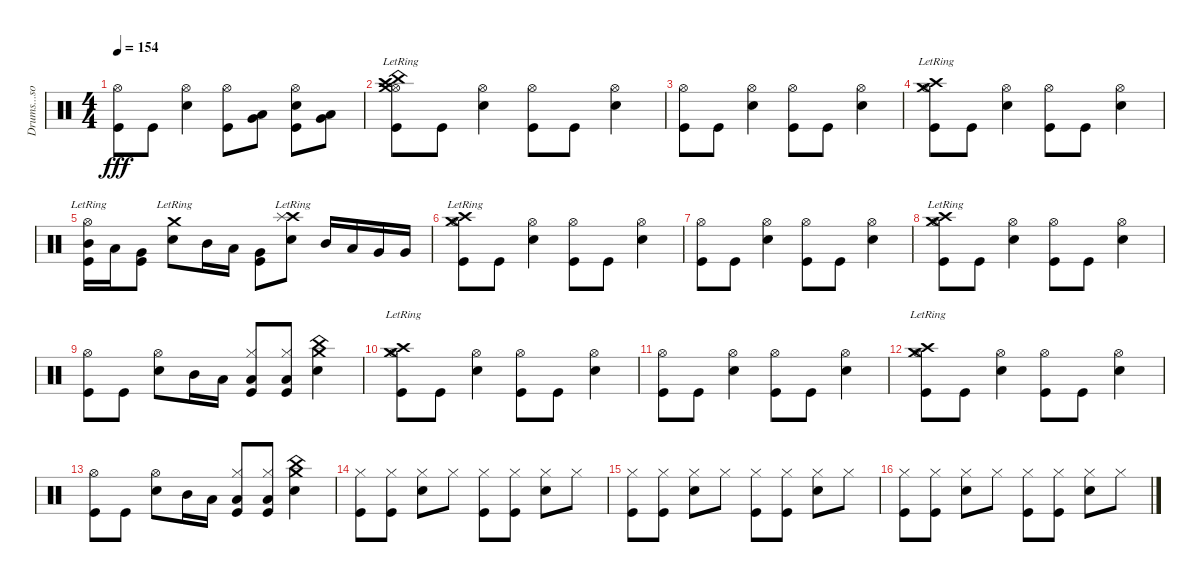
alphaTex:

\track ("Drums...song tabbed by ae" "Drums...so") {instrument percussion}
\staff {score}
\articulation defaults
\ts (4 4)
\tempo 154
\clef neutral
\ks c
("Hi-Hat (open)" "Kick (hit)").8{dy fff} "Kick (hit)".8 ("Hi-Hat (open)" "Snare (hit) 2").4 ("Hi-Hat (open)" "Kick (hit)").8 ("Very Low Tom (hit)" "Low Tom (hit)").8 ("Hi-Hat (open)" "Snare (hit) 2" "Kick (hit)").8 ("Very Low Tom (hit)" "Low Tom (hit)").8 |
("Crash high (hit)"{lr} "Hi-Hat (open)" "Crash medium (hit)"{lr} "Kick (hit)" "China (hit)").8 "Kick (hit)".8 ("Hi-Hat (open)" "Snare (hit) 2").4 ("Hi-Hat (open)" "Kick (hit)").8 "Kick (hit)".8 ("Hi-Hat (open)" "Snare (hit) 2").4 |
("Hi-Hat (open)" "Kick (hit)").8 "Kick (hit)".8 ("Hi-Hat (open)" "Snare (hit) 2").4 ("Hi-Hat (open)" "Kick (hit)").8 "Kick (hit)".8 ("Hi-Hat (open)" "Snare (hit) 2").4 |
("Crash high (hit)"{lr} "Hi-Hat (open)" "Crash medium (hit)"{lr} "Kick (hit)").8 "Kick (hit)".8 ("Hi-Hat (open)" "Snare (hit) 2").4 ("Hi-Hat (open)" "Kick (hit)").8 "Kick (hit)".8 ("Hi-Hat (open)" "Snare (hit) 2").4 |
("Hi-Hat (open)"{lr} "Mid Tom (hit)" "Kick (hit)").16 "Low Tom (hit)".16 ("Very Low Tom (hit)" "Kick (hit)").8 ("Crash medium (hit)"{lr} "Snare (hit) 2").8 "Mid Tom (hit)".16 "Low Tom (hit)".16 ("Very Low Tom (hit)" "Kick (hit)").8 ("Crash high (hit)"{lr} "Splash (hit)"{lr} "Snare (hit) 2").8 "Mid Tom (hit)".16 "Low Tom (hit)".16 "Very Low Tom (hit)".16 "Very Low Tom (hit)".16 |
("Crash high (hit)"{lr} "Hi-Hat (open)" "Crash medium (hit)"{lr} "Kick (hit)").8 "Kick (hit)".8 ("Hi-Hat (open)" "Snare (hit) 2").4 ("Hi-Hat (open)" "Kick (hit)").8 "Kick (hit)".8 ("Hi-Hat (open)" "Snare (hit) 2").4 |
("Hi-Hat (open)" "Kick (hit)").8 "Kick (hit)".8 ("Hi-Hat (open)" "Snare (hit) 2").4 ("Hi-Hat (open)" "Kick (hit)").8 "Kick (hit)".8 ("Hi-Hat (open)" "Snare (hit) 2").4 |
("Crash high (hit)"{lr} "Hi-Hat (open)" "Crash medium (hit)"{lr} "Kick (hit)").8 "Kick (hit)".8 ("Hi-Hat (open)" "Snare (hit) 2").4 ("Hi-Hat (open)" "Kick (hit)").8 "Kick (hit)".8 ("Hi-Hat (open)" "Snare (hit) 2").4 |
("Hi-Hat (open)" "Kick (hit)").8 "Kick (hit)".8 ("Hi-Hat (open)" "Snare (hit) 2").8 "Mid Tom (hit)".16 "Low Tom (hit)".16 ("Hi-Hat (closed)" "Low Floor Tom (hit)" "Kick (hit)").8 ("Hi-Hat (closed)" "Low Floor Tom (hit)" "Kick (hit)").8 ("Crash medium (hit)" "China (hit)" "Snare (hit) 2").4 |
("Crash high (hit)"{lr} "Hi-Hat (open)" "Crash medium (hit)"{lr} "Kick (hit)").8 "Kick (hit)".8 ("Hi-Hat (open)" "Snare (hit) 2").4 ("Hi-Hat (open)" "Kick (hit)").8 "Kick (hit)".8 ("Hi-Hat (open)" "Snare (hit) 2").4 |
("Hi-Hat (open)" "Kick (hit)").8 "Kick (hit)".8 ("Hi-Hat (open)" "Snare (hit) 2").4 ("Hi-Hat (open)" "Kick (hit)").8 "Kick (hit)".8 ("Hi-Hat (open)" "Snare (hit) 2").4 |
("Crash high (hit)"{lr} "Hi-Hat (open)" "Crash medium (hit)"{lr} "Kick (hit)").8 "Kick (hit)".8 ("Hi-Hat (open)" "Snare (hit) 2").4 ("Hi-Hat (open)" "Kick (hit)").8 "Kick (hit)".8 ("Hi-Hat (open)" "Snare (hit) 2").4 |
("Hi-Hat (open)" "Kick (hit)").8 "Kick (hit)".8 ("Hi-Hat (open)" "Snare (hit) 2").8 "Mid Tom (hit)".16 "Low Tom (hit)".16 ("Hi-Hat (closed)" "Low Floor Tom (hit)" "Kick (hit)").8 ("Hi-Hat (closed)" "Low Floor Tom (hit)" "Kick (hit)").8 ("Crash medium (hit)" "China (hit)" "Snare (hit) 2").4 |
("Hi-Hat (closed)" "Kick (hit)").8 ("Hi-Hat (closed)" "Kick (hit)").8 ("Hi-Hat (closed)" "Snare (hit) 2").8 "Hi-Hat (closed)".8 ("Hi-Hat (closed)" "Kick (hit)").8 ("Hi-Hat (closed)" "Kick (hit)").8 ("Hi-Hat (closed)" "Snare (hit) 2").8 "Hi-Hat (closed)".8 |
("Hi-Hat (closed)" "Kick (hit)").8 ("Hi-Hat (closed)" "Kick (hit)").8 ("Hi-Hat (closed)" "Snare (hit) 2").8 "Hi-Hat (closed)".8 ("Hi-Hat (closed)" "Kick (hit)").8 ("Hi-Hat (closed)" "Kick (hit)").8 ("Hi-Hat (closed)" "Snare (hit) 2").8 "Hi-Hat (closed)".8 |
("Hi-Hat (closed)" "Kick (hit)").8 ("Hi-Hat (closed)" "Kick (hit)").8 ("Hi-Hat (closed)" "Snare (hit) 2").8 "Hi-Hat (closed)".8 ("Hi-Hat (closed)" "Kick (hit)").8 ("Hi-Hat (closed)" "Kick (hit)").8 ("Hi-Hat (closed)" "Snare (hit) 2").8 "Hi-Hat (closed)".8
